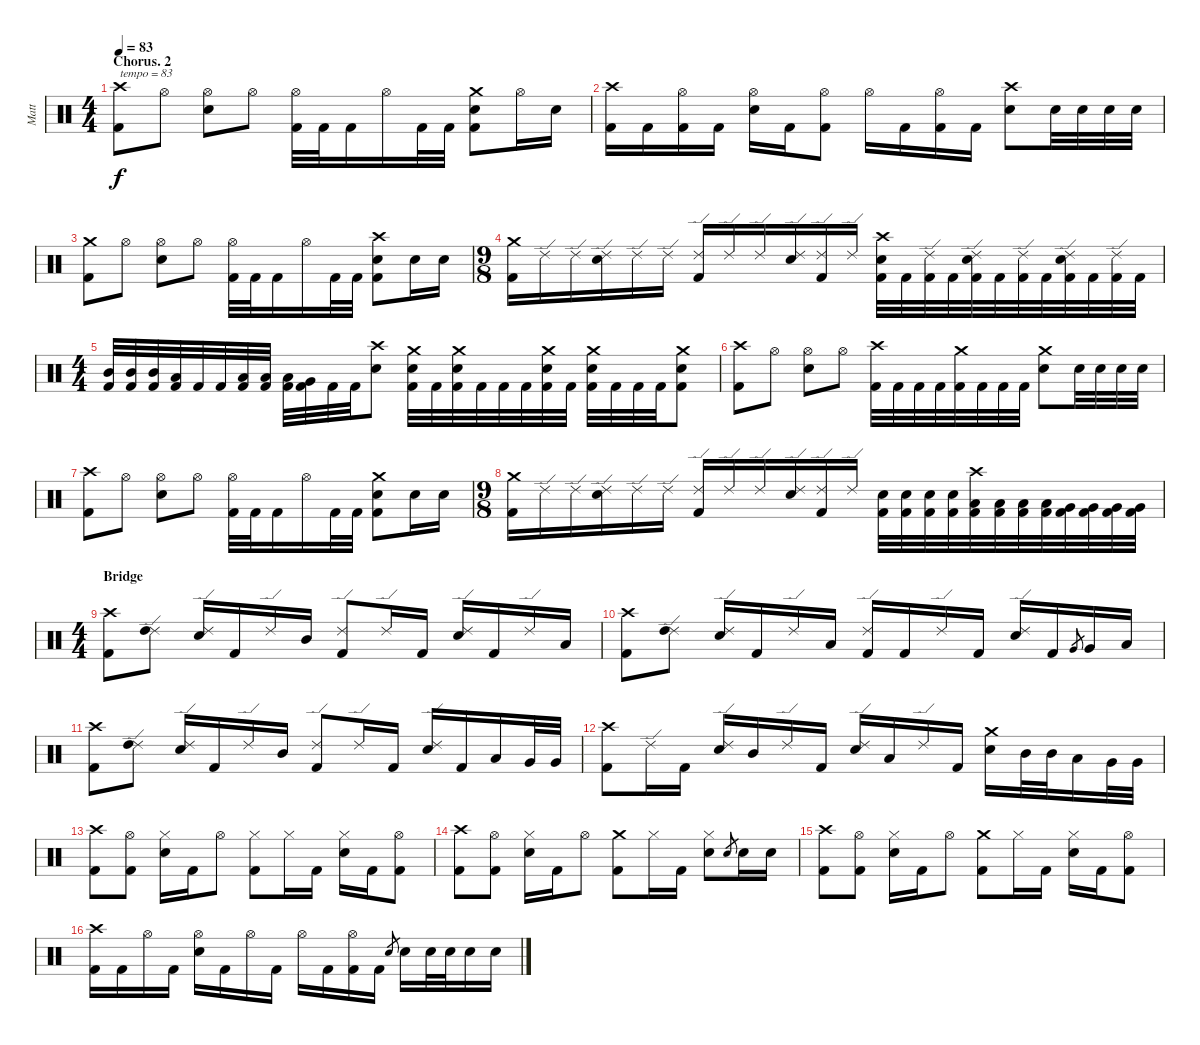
\track ("Matt" "Matt") {instrument percussion}
\staff {score}
\articulation defaults
\ts (4 4)
\section ("" "Chorus. 2")
\tempo 83
\clef neutral
\ks c
("Crash high (hit)" "Kick (hit) 2").8{txt "tempo = 83" dy f} "Hi-Hat (open)".8 ("Hi-Hat (open)" "Electric Snare (hit)").8 "Hi-Hat (open)".8 ("Hi-Hat (open)" "Kick (hit) 2").32 "Kick (hit) 2".32 "Kick (hit) 2".16 "Hi-Hat (open)".16 "Kick (hit) 2".32 "Kick (hit) 2".32 ("Crash medium (hit)" "Electric Snare (hit)" "Kick (hit) 2").8 "Hi-Hat (open)".16 "Electric Snare (hit)".16 |
("Crash high (hit)" "Kick (hit) 2").16 "Kick (hit) 2".16 ("Hi-Hat (open)" "Kick (hit) 2").16 "Kick (hit) 2".16 ("Hi-Hat (open)" "Electric Snare (hit)").16 "Kick (hit) 2".16 ("Hi-Hat (open)" "Kick (hit) 2").8 "Hi-Hat (open)".16 "Kick (hit) 2".16 ("Hi-Hat (open)" "Kick (hit) 2").16 "Kick (hit) 2".16 ("Crash high (hit)" "Electric Snare (hit)").8 "Electric Snare (hit)".32 "Electric Snare (hit)".32 "Electric Snare (hit)".32 "Electric Snare (hit)".32 |
("Crash medium (hit)" "Kick (hit) 2").8 "Hi-Hat (open)".8 ("Hi-Hat (open)" "Electric Snare (hit)").8 "Hi-Hat (open)".8 ("Hi-Hat (open)" "Kick (hit) 2").32 "Kick (hit) 2".32 "Kick (hit) 2".16 "Hi-Hat (open)".16 "Kick (hit) 2".32 "Kick (hit) 2".32 ("Crash high (hit)" "Electric Snare (hit)" "Kick (hit) 2").8 "Electric Snare (hit)".16 "Electric Snare (hit)".16 |
\ts (9 8)
("Crash medium (hit)" "Kick (hit) 2").16 "Ride (edge) 2".16 "Ride (edge) 2".16 ("Ride (edge) 2" "Electric Snare (hit)").16 "Ride (edge) 2".16 "Ride (edge) 2".16 ("Ride (edge) 2" "Kick (hit) 2").16 "Ride (edge) 2".16 "Ride (edge) 2".16 ("Ride (edge) 2" "Electric Snare (hit)").16 ("Ride (edge) 2" "Kick (hit) 2").16 "Ride (edge) 2".16 ("Crash high (hit)" "Electric Snare (hit)" "Kick (hit) 2").32 "Kick (hit) 2".32 ("Ride (edge) 2" "Kick (hit) 2").32 "Kick (hit) 2".32 ("Ride (edge) 2" "Electric Snare (hit)" "Kick (hit) 2").32 "Kick (hit) 2".32 ("Ride (edge) 2" "Kick (hit) 2").32 "Kick (hit) 2".32 ("Ride (edge) 2" "Electric Snare (hit)" "Kick (hit) 2").32 "Kick (hit) 2".32 ("Ride (edge) 2" "Kick (hit) 2").32 "Kick (hit) 2".32 |
\ts (4 4)
("Mid Tom (hit)" "Kick (hit) 2").32 ("Mid Tom (hit)" "Kick (hit) 2").32 ("Mid Tom (hit)" "Kick (hit) 2").32 ("Low Tom (hit)" "Kick (hit) 2").32 "Kick (hit) 2".32 "Kick (hit) 2".32 ("Low Tom (hit)" "Kick (hit) 2").32 ("Low Tom (hit)" "Kick (hit) 2").32 ("Low Tom (hit)" "Kick (hit) 2").32 ("Very Low Tom (hit)" "Kick (hit) 2").32 "Kick (hit) 2".32 "Kick (hit) 2".32 ("Crash high (hit)" "Electric Snare (hit)").8 ("Crash medium (hit)" "Electric Snare (hit)" "Kick (hit) 2").32 "Kick (hit) 2".32 ("Crash medium (hit)" "Electric Snare (hit)" "Kick (hit) 2").32 "Kick (hit) 2".32 "Kick (hit) 2".32 "Kick (hit) 2".32 ("Crash medium (hit)" "Electric Snare (hit)" "Kick (hit) 2").32 "Kick (hit) 2".32 ("Crash medium (hit)" "Electric Snare (hit)" "Kick (hit) 2").32 "Kick (hit) 2".32 "Kick (hit) 2".32 "Kick (hit) 2".32 ("Crash medium (hit)" "Electric Snare (hit)" "Kick (hit) 2").8 |
("Crash high (hit)" "Kick (hit) 2").8 "Hi-Hat (open)".8 ("Hi-Hat (open)" "Electric Snare (hit)").8 "Hi-Hat (open)".8 ("Crash high (hit)" "Kick (hit) 2").32 "Kick (hit) 2".32 "Kick (hit) 2".32 "Kick (hit) 2".32 ("Crash medium (hit)" "Kick (hit) 2").32 "Kick (hit) 2".32 "Kick (hit) 2".32 "Kick (hit) 2".32 ("Crash medium (hit)" "Electric Snare (hit)").8 "Electric Snare (hit)".32 "Electric Snare (hit)".32 "Electric Snare (hit)".32 "Electric Snare (hit)".32 |
("Crash high (hit)" "Kick (hit) 2").8 "Hi-Hat (open)".8 ("Hi-Hat (open)" "Electric Snare (hit)").8 "Hi-Hat (open)".8 ("Hi-Hat (open)" "Kick (hit) 2").32 "Kick (hit) 2".32 "Kick (hit) 2".16 "Hi-Hat (open)".16 "Kick (hit) 2".32 "Kick (hit) 2".32 ("Crash medium (hit)" "Electric Snare (hit)" "Kick (hit) 2").8 "Electric Snare (hit)".16 "Electric Snare (hit)".16 |
\ts (9 8)
("Crash medium (hit)" "Kick (hit) 2").16 "Ride (edge) 2".16 "Ride (edge) 2".16 ("Ride (edge) 2" "Electric Snare (hit)").16 "Ride (edge) 2".16 "Ride (edge) 2".16 ("Ride (edge) 2" "Kick (hit) 2").16 "Ride (edge) 2".16 "Ride (edge) 2".16 ("Ride (edge) 2" "Electric Snare (hit)").16 ("Ride (edge) 2" "Kick (hit) 2").16 "Ride (edge) 2".16 ("Electric Snare (hit)" "Kick (hit) 2").32 ("Electric Snare (hit)" "Kick (hit) 2").32 ("Electric Snare (hit)" "Kick (hit) 2").32 ("Electric Snare (hit)" "Kick (hit) 2").32 ("Crash high (hit)" "Low Tom (hit)" "Kick (hit) 2").32 ("Low Tom (hit)" "Kick (hit) 2").32 ("Low Tom (hit)" "Kick (hit) 2").32 ("Low Tom (hit)" "Kick (hit) 2").32 ("Very Low Tom (hit)" "Kick (hit) 2").32 ("Very Low Tom (hit)" "Kick (hit) 2").32 ("Very Low Tom (hit)" "Kick (hit) 2").32 ("Very Low Tom (hit)" "Kick (hit) 2").32 |
\ts (4 4)
\section ("" "Bridge")
("Crash high (hit)" "Kick (hit) 2").8 ("Ride (edge) 2" "High Tom (hit)").8 ("Ride (edge) 2" "Electric Snare (hit)").16 "Kick (hit) 2".16 "Ride (edge) 2".16 "Mid Tom (hit)".16 ("Ride (edge) 2" "Kick (hit) 2").8 "Ride (edge) 2".16 "Kick (hit) 2".16 ("Ride (edge) 2" "Electric Snare (hit)").16 "Kick (hit) 2".16 "Ride (edge) 2".16 "Low Tom (hit)".16 |
("Crash high (hit)" "Kick (hit) 2").8 ("Ride (edge) 2" "High Tom (hit)").8 ("Ride (edge) 2" "Electric Snare (hit)").16 "Kick (hit) 2".16 "Ride (edge) 2".16 "Low Tom (hit)".16 ("Ride (edge) 2" "Kick (hit) 2").16 "Kick (hit) 2".16 "Ride (edge) 2".16 "Kick (hit) 2".16 ("Ride (edge) 2" "Electric Snare (hit)").16 "Kick (hit) 2".16 "Very Low Tom (hit)".8{gr} "Very Low Tom (hit)".16 "Low Floor Tom (hit)".16 |
("Crash high (hit)" "Kick (hit) 2").8 ("Ride (edge) 2" "High Tom (hit)").8 ("Ride (edge) 2" "Electric Snare (hit)").16 "Kick (hit) 2".16 "Ride (edge) 2".16 "Mid Tom (hit)".16 ("Ride (edge) 2" "Kick (hit) 2").8 "Ride (edge) 2".16 "Kick (hit) 2".16 ("Ride (edge) 2" "Electric Snare (hit)").16 "Kick (hit) 2".16 "Low Tom (hit)".16 "Very Low Tom (hit)".32 "Very Low Tom (hit)".32 |
("Crash high (hit)" "Kick (hit) 2").8 "Ride (edge) 2".16 "Kick (hit) 2".16 ("Ride (edge) 2" "Electric Snare (hit)").16 "Mid Tom (hit)".16 "Ride (edge) 2".16 "Kick (hit) 2".16 ("Ride (edge) 2" "Electric Snare (hit)").16 "Low Tom (hit)".16 "Ride (edge) 2".16 "Kick (hit) 2".16 ("Crash medium (hit)" "Electric Snare (hit)").16 "Mid Tom (hit)".32 "Mid Tom (hit)".32 "Low Tom (hit)".16 "Very Low Tom (hit)".32 "Very Low Tom (hit)".32 |
("Crash high (hit)" "Kick (hit) 2").8 ("Hi-Hat (open)" "Kick (hit) 2").8 ("Hi-Hat (closed)" "Electric Snare (hit)").16 "Kick (hit) 2".16 "Hi-Hat (open)".8 ("Hi-Hat (closed)" "Kick (hit) 2").8 "Hi-Hat (closed)".16 "Kick (hit) 2".16 ("Hi-Hat (closed)" "Electric Snare (hit)").16 "Kick (hit) 2".16 ("Hi-Hat (open)" "Kick (hit) 2").8 |
("Crash high (hit)" "Kick (hit) 2").8 ("Hi-Hat (open)" "Kick (hit) 2").8 ("Hi-Hat (closed)" "Electric Snare (hit)").16 "Kick (hit) 2".16 "Hi-Hat (open)".8 ("Crash medium (hit)" "Kick (hit) 2").8 "Hi-Hat (closed)".16 "Kick (hit) 2".16 ("Hi-Hat (closed)" "Electric Snare (hit)").8 "Electric Snare (hit)".8{gr} "Electric Snare (hit)".16 "Electric Snare (hit)".16 |
("Crash high (hit)" "Kick (hit) 2").8 ("Hi-Hat (open)" "Kick (hit) 2").8 ("Hi-Hat (closed)" "Electric Snare (hit)").16 "Kick (hit) 2".16 "Hi-Hat (open)".8 ("Crash medium (hit)" "Kick (hit) 2").8 "Hi-Hat (closed)".16 "Kick (hit) 2".16 ("Hi-Hat (closed)" "Electric Snare (hit)").16 "Kick (hit) 2".16 ("Hi-Hat (open)" "Kick (hit) 2").8 |
("Crash high (hit)" "Kick (hit) 2").16 "Kick (hit) 2".16 "Hi-Hat (open)".16 "Kick (hit) 2".16 ("Hi-Hat (open)" "Electric Snare (hit)").16 "Kick (hit) 2".16 "Hi-Hat (open)".16 "Kick (hit) 2".16 "Hi-Hat (open)".16 "Kick (hit) 2".16 ("Hi-Hat (open)" "Kick (hit) 2").16 "Kick (hit) 2".16 "Electric Snare (hit)".8{gr} "Electric Snare (hit)".16 "Electric Snare (hit)".32 "Electric Snare (hit)".32 "Electric Snare (hit)".16 "Electric Snare (hit)".16
